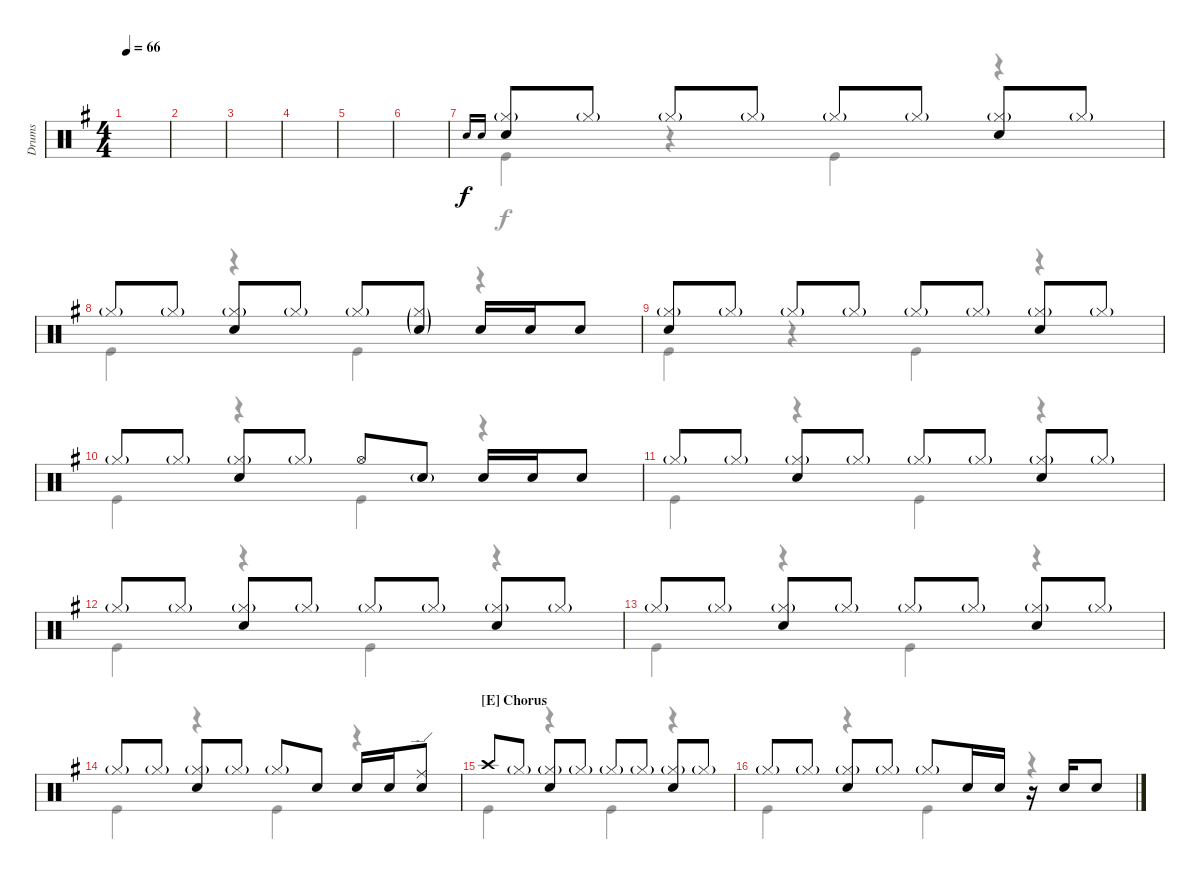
\defaultSystemsLayout 4
\bracketExtendMode groupsimilarinstruments
\otherSystemsTrackNameOrientation horizontal
\track ("Drumkit" "Drums") {instrument percussion}
\staff {score}
\articulation defaults
\voice
\ts (4 4)
\tempo 66
\clef neutral
\ks g
|
|
|
|
|
|
"Snare (hit) 2".16{gr onbeat} "Snare (hit) 2".16{gr onbeat} ("Snare (hit) 2" "Hi-Hat (closed)"{g}).8 "Hi-Hat (closed)"{g}.8 "Hi-Hat (closed)"{g}.8 "Hi-Hat (closed)"{g}.8 "Hi-Hat (closed)"{g}.8 "Hi-Hat (closed)"{g}.8 ("Snare (hit) 2" "Hi-Hat (closed)"{g}).8 "Hi-Hat (closed)"{g}.8 |
"Hi-Hat (closed)"{g}.8 "Hi-Hat (closed)"{g}.8 ("Hi-Hat (closed)"{g} "Snare (hit) 2").8 "Hi-Hat (closed)"{g}.8 "Hi-Hat (closed)"{g}.8 ("Hi-Hat (closed)"{g} "Snare (hit) 2"{g}).8 "Snare (hit) 2".16 "Snare (hit) 2".16 "Snare (hit) 2".8 |
("Snare (hit) 2" "Hi-Hat (closed)"{g}).8 "Hi-Hat (closed)"{g}.8 "Hi-Hat (closed)"{g}.8 "Hi-Hat (closed)"{g}.8 "Hi-Hat (closed)"{g}.8 "Hi-Hat (closed)"{g}.8 ("Snare (hit) 2" "Hi-Hat (closed)"{g}).8 "Hi-Hat (closed)"{g}.8 |
"Hi-Hat (closed)"{g}.8 "Hi-Hat (closed)"{g}.8 ("Hi-Hat (closed)"{g} "Snare (hit) 2").8 "Hi-Hat (closed)"{g}.8 "Hi-Hat (open)".8 "Snare (hit) 2"{g}.8 "Snare (hit) 2".16 "Snare (hit) 2".16 "Snare (hit) 2".8 |
"Hi-Hat (closed)"{g}.8 "Hi-Hat (closed)"{g}.8 ("Hi-Hat (closed)"{g} "Snare (hit) 2").8 "Hi-Hat (closed)"{g}.8 "Hi-Hat (closed)"{g}.8 "Hi-Hat (closed)"{g}.8 ("Snare (hit) 2" "Hi-Hat (closed)"{g}).8 "Hi-Hat (closed)"{g}.8 |
"Hi-Hat (closed)"{g}.8 "Hi-Hat (closed)"{g}.8 ("Hi-Hat (closed)"{g} "Snare (hit) 2").8 "Hi-Hat (closed)"{g}.8 "Hi-Hat (closed)"{g}.8 "Hi-Hat (closed)"{g}.8 ("Snare (hit) 2" "Hi-Hat (closed)"{g}).8 "Hi-Hat (closed)"{g}.8 |
"Hi-Hat (closed)"{g}.8 "Hi-Hat (closed)"{g}.8 ("Hi-Hat (closed)"{g} "Snare (hit) 2").8 "Hi-Hat (closed)"{g}.8 "Hi-Hat (closed)"{g}.8 "Hi-Hat (closed)"{g}.8 ("Snare (hit) 2" "Hi-Hat (closed)"{g}).8 "Hi-Hat (closed)"{g}.8 |
"Hi-Hat (closed)"{g}.8 "Hi-Hat (closed)"{g}.8 ("Hi-Hat (closed)"{g} "Snare (hit) 2").8 "Hi-Hat (closed)"{g}.8 "Hi-Hat (closed)"{g}.8 "Snare (hit) 2".8 "Snare (hit) 2".16 "Snare (hit) 2".16 ("Snare (hit) 2" "Ride (edge)").8 |
\section ("E" "Chorus")
"Crash high (hit)".8 "Hi-Hat (closed)"{g}.8 ("Hi-Hat (closed)"{g} "Snare (hit) 2").8 "Hi-Hat (closed)"{g}.8 "Hi-Hat (closed)"{g}.8 "Hi-Hat (closed)"{g}.8 ("Hi-Hat (closed)"{g} "Snare (hit) 2").8 "Hi-Hat (closed)"{g}.8 |
"Hi-Hat (closed)"{g}.8 "Hi-Hat (closed)"{g}.8 ("Hi-Hat (closed)"{g} "Snare (hit) 2").8 "Hi-Hat (closed)"{g}.8 "Hi-Hat (closed)"{g}.8 "Snare (hit) 2".16 "Snare (hit) 2".16 r.16 "Snare (hit) 2".16 "Snare (hit) 2".8
\voice
\clef neutral
\ottava regular
\simile none
\ks g
|
|
|
|
|
|
"Kick (hit)".4 r.4 "Kick (hit)".4 r.4 |
"Kick (hit)".4 r.4 "Kick (hit)".4 r.4 |
"Kick (hit)".4 r.4 "Kick (hit)".4 r.4 |
"Kick (hit)".4 r.4 "Kick (hit)".4 r.4 |
"Kick (hit)".4 r.4 "Kick (hit)".4 r.4 |
"Kick (hit)".4 r.4 "Kick (hit)".4 r.4 |
"Kick (hit)".4 r.4 "Kick (hit)".4 r.4 |
"Kick (hit)".4 r.4 "Kick (hit)".4 r.4 |
"Kick (hit)".4 r.4 "Kick (hit)".4 r.4 |
"Kick (hit)".4 r.4 "Kick (hit)".4 r.4
